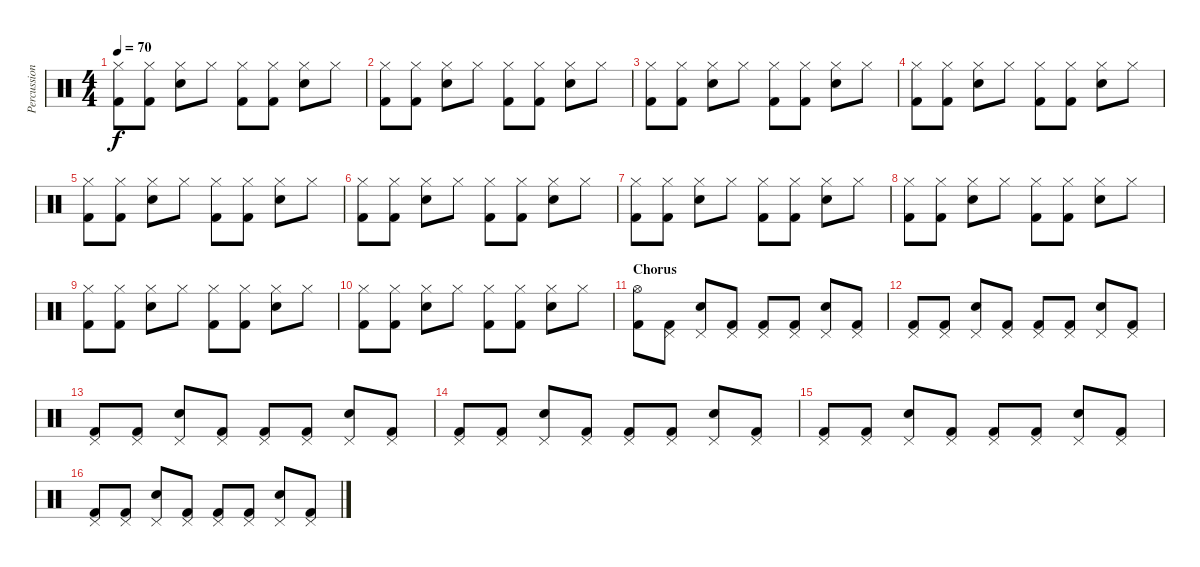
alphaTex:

\track ("Percussions" "Percussion") {instrument percussion}
\staff {score}
\articulation defaults
\ts (4 4)
\tempo 70
\clef neutral
\ks c
("Kick (hit) 2" "Hi-Hat (closed)").8{dy f} ("Kick (hit) 2" "Hi-Hat (closed)").8 ("Electric Snare (hit)" "Hi-Hat (closed)").8 "Hi-Hat (closed)".8 ("Kick (hit) 2" "Hi-Hat (closed)").8 ("Kick (hit) 2" "Hi-Hat (closed)").8 ("Snare (hit) 2" "Hi-Hat (closed)").8 "Hi-Hat (closed)".8 |
("Kick (hit) 2" "Hi-Hat (closed)").8 ("Kick (hit) 2" "Hi-Hat (closed)").8 ("Electric Snare (hit)" "Hi-Hat (closed)").8 "Hi-Hat (closed)".8 ("Kick (hit) 2" "Hi-Hat (closed)").8 ("Kick (hit) 2" "Hi-Hat (closed)").8 ("Snare (hit) 2" "Hi-Hat (closed)").8 "Hi-Hat (closed)".8 |
("Kick (hit) 2" "Hi-Hat (closed)").8 ("Kick (hit) 2" "Hi-Hat (closed)").8 ("Electric Snare (hit)" "Hi-Hat (closed)").8 "Hi-Hat (closed)".8 ("Kick (hit) 2" "Hi-Hat (closed)").8 ("Kick (hit) 2" "Hi-Hat (closed)").8 ("Snare (hit) 2" "Hi-Hat (closed)").8 "Hi-Hat (closed)".8 |
("Kick (hit) 2" "Hi-Hat (closed)").8 ("Kick (hit) 2" "Hi-Hat (closed)").8 ("Electric Snare (hit)" "Hi-Hat (closed)").8 "Hi-Hat (closed)".8 ("Kick (hit) 2" "Hi-Hat (closed)").8 ("Kick (hit) 2" "Hi-Hat (closed)").8 ("Snare (hit) 2" "Hi-Hat (closed)").8 "Hi-Hat (closed)".8 |
("Kick (hit) 2" "Hi-Hat (closed)").8 ("Kick (hit) 2" "Hi-Hat (closed)").8 ("Electric Snare (hit)" "Hi-Hat (closed)").8 "Hi-Hat (closed)".8 ("Kick (hit) 2" "Hi-Hat (closed)").8 ("Kick (hit) 2" "Hi-Hat (closed)").8 ("Snare (hit) 2" "Hi-Hat (closed)").8 "Hi-Hat (closed)".8 |
("Kick (hit) 2" "Hi-Hat (closed)").8 ("Kick (hit) 2" "Hi-Hat (closed)").8 ("Electric Snare (hit)" "Hi-Hat (closed)").8 "Hi-Hat (closed)".8 ("Kick (hit) 2" "Hi-Hat (closed)").8 ("Kick (hit) 2" "Hi-Hat (closed)").8 ("Snare (hit) 2" "Hi-Hat (closed)").8 "Hi-Hat (closed)".8 |
("Kick (hit) 2" "Hi-Hat (closed)").8 ("Kick (hit) 2" "Hi-Hat (closed)").8 ("Electric Snare (hit)" "Hi-Hat (closed)").8 "Hi-Hat (closed)".8 ("Kick (hit) 2" "Hi-Hat (closed)").8 ("Kick (hit) 2" "Hi-Hat (closed)").8 ("Snare (hit) 2" "Hi-Hat (closed)").8 "Hi-Hat (closed)".8 |
("Kick (hit) 2" "Hi-Hat (closed)").8 ("Kick (hit) 2" "Hi-Hat (closed)").8 ("Electric Snare (hit)" "Hi-Hat (closed)").8 "Hi-Hat (closed)".8 ("Kick (hit) 2" "Hi-Hat (closed)").8 ("Kick (hit) 2" "Hi-Hat (closed)").8 ("Snare (hit) 2" "Hi-Hat (closed)").8 "Hi-Hat (closed)".8 |
("Kick (hit) 2" "Hi-Hat (closed)").8 ("Kick (hit) 2" "Hi-Hat (closed)").8 ("Electric Snare (hit)" "Hi-Hat (closed)").8 "Hi-Hat (closed)".8 ("Kick (hit) 2" "Hi-Hat (closed)").8 ("Kick (hit) 2" "Hi-Hat (closed)").8 ("Snare (hit) 2" "Hi-Hat (closed)").8 "Hi-Hat (closed)".8 |
("Kick (hit) 2" "Hi-Hat (closed)").8 ("Kick (hit) 2" "Hi-Hat (closed)").8 ("Electric Snare (hit)" "Hi-Hat (closed)").8 "Hi-Hat (closed)".8 ("Kick (hit) 2" "Hi-Hat (closed)").8 ("Kick (hit) 2" "Hi-Hat (closed)").8 ("Snare (hit) 2" "Hi-Hat (closed)").8 "Hi-Hat (closed)".8 |
\section ("" "Chorus")
("Kick (hit) 2" "Hi-Hat (open)").8 ("Kick (hit) 2" "Pedal Hi-Hat (hit)").8 ("Snare (hit) 2" "Pedal Hi-Hat (hit)").8 ("Kick (hit) 2" "Pedal Hi-Hat (hit)").8 ("Kick (hit) 2" "Pedal Hi-Hat (hit)").8 ("Kick (hit) 2" "Pedal Hi-Hat (hit)").8 ("Pedal Hi-Hat (hit)" "Snare (hit) 2").8 ("Kick (hit) 2" "Pedal Hi-Hat (hit)").8 |
("Kick (hit) 2" "Pedal Hi-Hat (hit)").8 ("Kick (hit) 2" "Pedal Hi-Hat (hit)").8 ("Snare (hit) 2" "Pedal Hi-Hat (hit)").8 ("Kick (hit) 2" "Pedal Hi-Hat (hit)").8 ("Kick (hit) 2" "Pedal Hi-Hat (hit)").8 ("Kick (hit) 2" "Pedal Hi-Hat (hit)").8 ("Pedal Hi-Hat (hit)" "Snare (hit) 2").8 ("Kick (hit) 2" "Pedal Hi-Hat (hit)").8 |
("Kick (hit) 2" "Pedal Hi-Hat (hit)").8 ("Kick (hit) 2" "Pedal Hi-Hat (hit)").8 ("Snare (hit) 2" "Pedal Hi-Hat (hit)").8 ("Kick (hit) 2" "Pedal Hi-Hat (hit)").8 ("Kick (hit) 2" "Pedal Hi-Hat (hit)").8 ("Kick (hit) 2" "Pedal Hi-Hat (hit)").8 ("Pedal Hi-Hat (hit)" "Snare (hit) 2").8 ("Kick (hit) 2" "Pedal Hi-Hat (hit)").8 |
("Kick (hit) 2" "Pedal Hi-Hat (hit)").8 ("Kick (hit) 2" "Pedal Hi-Hat (hit)").8 ("Snare (hit) 2" "Pedal Hi-Hat (hit)").8 ("Kick (hit) 2" "Pedal Hi-Hat (hit)").8 ("Kick (hit) 2" "Pedal Hi-Hat (hit)").8 ("Kick (hit) 2" "Pedal Hi-Hat (hit)").8 ("Pedal Hi-Hat (hit)" "Snare (hit) 2").8 ("Kick (hit) 2" "Pedal Hi-Hat (hit)").8 |
("Kick (hit) 2" "Pedal Hi-Hat (hit)").8 ("Kick (hit) 2" "Pedal Hi-Hat (hit)").8 ("Snare (hit) 2" "Pedal Hi-Hat (hit)").8 ("Kick (hit) 2" "Pedal Hi-Hat (hit)").8 ("Kick (hit) 2" "Pedal Hi-Hat (hit)").8 ("Kick (hit) 2" "Pedal Hi-Hat (hit)").8 ("Pedal Hi-Hat (hit)" "Snare (hit) 2").8 ("Kick (hit) 2" "Pedal Hi-Hat (hit)").8 |
("Kick (hit) 2" "Pedal Hi-Hat (hit)").8 ("Kick (hit) 2" "Pedal Hi-Hat (hit)").8 ("Snare (hit) 2" "Pedal Hi-Hat (hit)").8 ("Kick (hit) 2" "Pedal Hi-Hat (hit)").8 ("Kick (hit) 2" "Pedal Hi-Hat (hit)").8 ("Kick (hit) 2" "Pedal Hi-Hat (hit)").8 ("Pedal Hi-Hat (hit)" "Snare (hit) 2").8 ("Kick (hit) 2" "Pedal Hi-Hat (hit)").8
